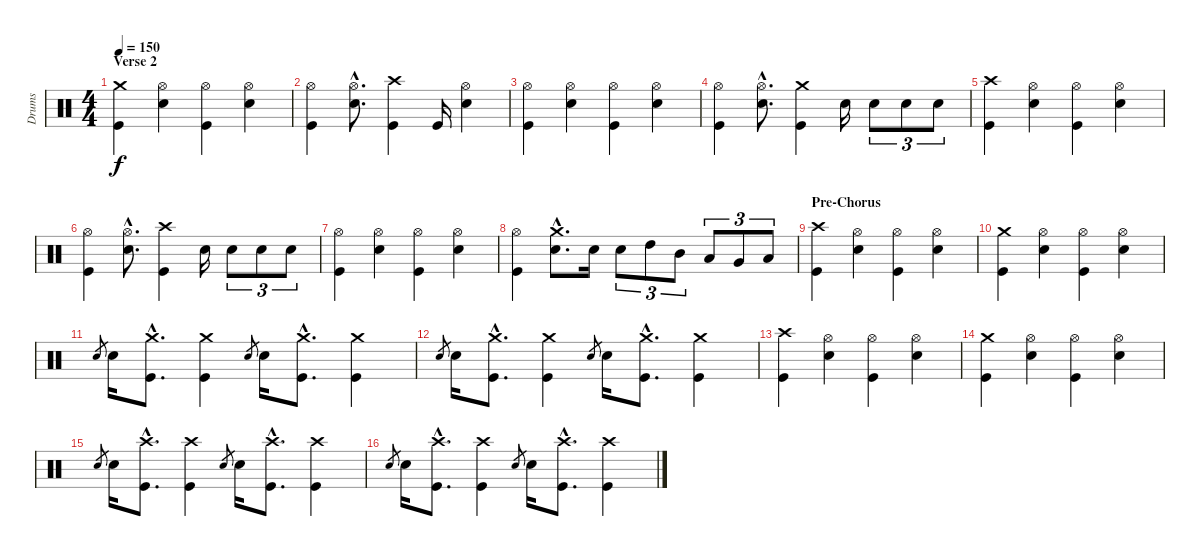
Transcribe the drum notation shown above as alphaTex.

\track ("Drums" "Drums") {instrument percussion}
\staff {score}
\articulation defaults
\ts (4 4)
\section ("" "Verse 2")
\tempo 150
\clef neutral
\ks c
("Crash medium (hit)" "Kick (hit)").4{dy f} ("Hi-Hat (open)" "Snare (hit) 2").4 ("Hi-Hat (open)" "Kick (hit)").4 ("Hi-Hat (open)" "Snare (hit) 2").4 |
("Hi-Hat (open)" "Kick (hit)").4 ("Hi-Hat (open)"{hac} "Snare (hit) 2"{hac}).8{d} ("Crash high (hit)" "Kick (hit)").4 "Kick (hit)".16 ("Hi-Hat (open)" "Snare (hit) 2").4 |
("Hi-Hat (open)" "Kick (hit)").4 ("Hi-Hat (open)" "Snare (hit) 2").4 ("Hi-Hat (open)" "Kick (hit)").4 ("Hi-Hat (open)" "Snare (hit) 2").4 |
("Hi-Hat (open)" "Kick (hit)").4 ("Hi-Hat (open)"{hac} "Snare (hit) 2"{hac}).8{d} ("Crash medium (hit)" "Kick (hit)").4 "Snare (hit) 2".16 "Snare (hit) 2".8{tu (3 2)} "Snare (hit) 2".8{tu (3 2)} "Snare (hit) 2".8{tu (3 2)} |
("Crash high (hit)" "Kick (hit)").4 ("Hi-Hat (open)" "Snare (hit) 2").4 ("Hi-Hat (open)" "Kick (hit)").4 ("Hi-Hat (open)" "Snare (hit) 2").4 |
("Hi-Hat (open)" "Kick (hit)").4 ("Hi-Hat (open)"{hac} "Snare (hit) 2"{hac}).8{d} ("Crash high (hit)" "Kick (hit)").4 "Snare (hit) 2".16 "Snare (hit) 2".8{tu (3 2)} "Snare (hit) 2".8{tu (3 2)} "Snare (hit) 2".8{tu (3 2)} |
("Hi-Hat (open)" "Kick (hit)").4 ("Hi-Hat (open)" "Snare (hit) 2").4 ("Hi-Hat (open)" "Kick (hit)").4 ("Hi-Hat (open)" "Snare (hit) 2").4 |
("Hi-Hat (open)" "Kick (hit)").4 ("Crash medium (hit)"{hac} "Snare (hit) 2"{hac}).8{d} "Snare (hit) 2".16 "Snare (hit) 2".8{tu (3 2)} "High Tom (hit)".8{tu (3 2)} "Mid Tom (hit)".8{tu (3 2)} "Low Tom (hit)".8{tu (3 2)} "Very Low Tom (hit)".8{tu (3 2)} "Low Floor Tom (hit)".8{tu (3 2)} |
\section ("" "Pre-Chorus")
("Crash high (hit)" "Kick (hit)").4 ("Hi-Hat (open)" "Snare (hit) 2").4 ("Hi-Hat (open)" "Kick (hit)").4 ("Hi-Hat (open)" "Snare (hit) 2").4 |
("Crash medium (hit)" "Kick (hit)").4 ("Hi-Hat (open)" "Snare (hit) 2").4 ("Hi-Hat (open)" "Kick (hit)").4 ("Hi-Hat (open)" "Snare (hit) 2").4 |
"Snare (hit) 2".8{gr} "Snare (hit) 2".16 ("Crash medium (hit)"{hac} "Kick (hit)"{hac}).8{d} ("Crash medium (hit)" "Kick (hit)").4 "Snare (hit) 2".8{gr} "Snare (hit) 2".16 ("Crash medium (hit)"{hac} "Kick (hit)"{hac}).8{d} ("Crash medium (hit)" "Kick (hit)").4 |
"Snare (hit) 2".8{gr} "Snare (hit) 2".16 ("Crash medium (hit)"{hac} "Kick (hit)"{hac}).8{d} ("Crash medium (hit)" "Kick (hit)").4 "Snare (hit) 2".8{gr} "Snare (hit) 2".16 ("Crash medium (hit)"{hac} "Kick (hit)"{hac}).8{d} ("Crash medium (hit)" "Kick (hit)").4 |
("Crash high (hit)" "Kick (hit)").4 ("Hi-Hat (open)" "Snare (hit) 2").4 ("Hi-Hat (open)" "Kick (hit)").4 ("Hi-Hat (open)" "Snare (hit) 2").4 |
("Crash medium (hit)" "Kick (hit)").4 ("Hi-Hat (open)" "Snare (hit) 2").4 ("Hi-Hat (open)" "Kick (hit)").4 ("Hi-Hat (open)" "Snare (hit) 2").4 |
"Snare (hit) 2".8{gr} "Snare (hit) 2".16 ("Crash high (hit)"{hac} "Kick (hit)"{hac}).8{d} ("Crash high (hit)" "Kick (hit)").4 "Snare (hit) 2".8{gr} "Snare (hit) 2".16 ("Crash high (hit)"{hac} "Kick (hit)"{hac}).8{d} ("Crash high (hit)" "Kick (hit)").4 |
"Snare (hit) 2".8{gr} "Snare (hit) 2".16 ("Crash high (hit)"{hac} "Kick (hit)"{hac}).8{d} ("Crash high (hit)" "Kick (hit)").4 "Snare (hit) 2".8{gr} "Snare (hit) 2".16 ("Crash high (hit)"{hac} "Kick (hit)"{hac}).8{d} ("Crash high (hit)" "Kick (hit)").4
